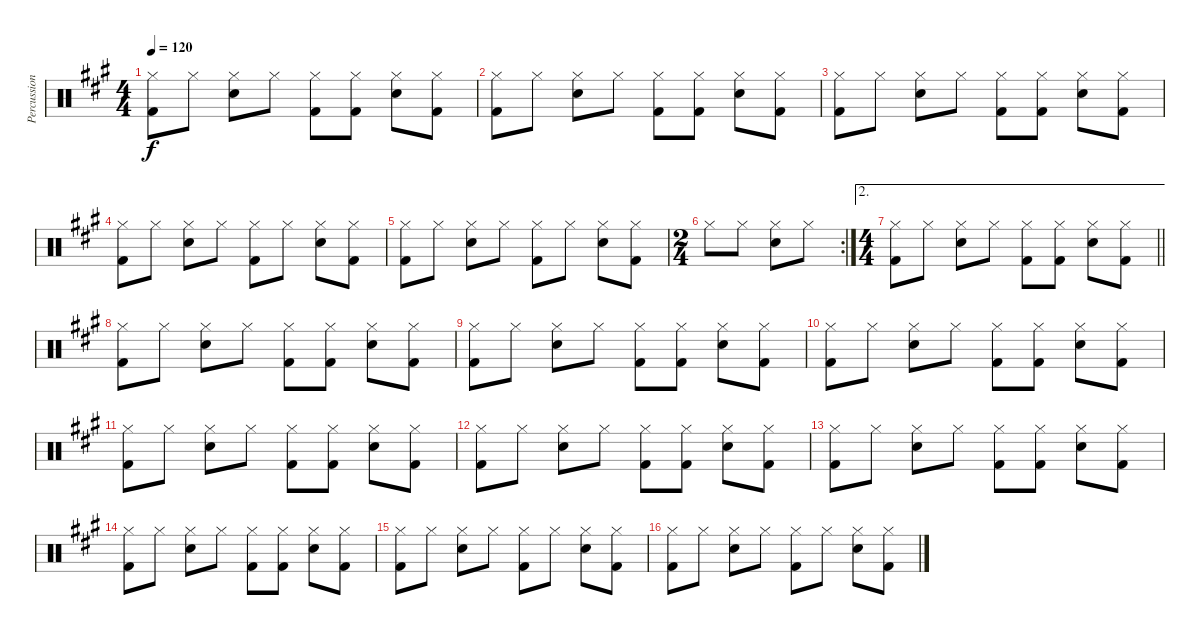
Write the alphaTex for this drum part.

\track ("Percussion" "Percussion") {instrument percussion}
\staff {score}
\articulation defaults
\ts (4 4)
\tempo 120
\clef neutral
\ks a
("Hi-Hat (closed)" "Kick (hit) 2").8{dy f} "Hi-Hat (closed)".8 ("Hi-Hat (closed)" "Snare (hit) 2").8 "Hi-Hat (closed)".8 ("Hi-Hat (closed)" "Kick (hit) 2").8 ("Hi-Hat (closed)" "Kick (hit) 2").8 ("Hi-Hat (closed)" "Snare (hit) 2").8 ("Hi-Hat (closed)" "Kick (hit) 2").8 |
("Hi-Hat (closed)" "Kick (hit) 2").8 "Hi-Hat (closed)".8 ("Hi-Hat (closed)" "Snare (hit) 2").8 "Hi-Hat (closed)".8 ("Hi-Hat (closed)" "Kick (hit) 2").8 ("Hi-Hat (closed)" "Kick (hit) 2").8 ("Hi-Hat (closed)" "Snare (hit) 2").8 ("Hi-Hat (closed)" "Kick (hit) 2").8 |
("Hi-Hat (closed)" "Kick (hit) 2").8 "Hi-Hat (closed)".8 ("Hi-Hat (closed)" "Snare (hit) 2").8 "Hi-Hat (closed)".8 ("Hi-Hat (closed)" "Kick (hit) 2").8 ("Hi-Hat (closed)" "Kick (hit) 2").8 ("Hi-Hat (closed)" "Snare (hit) 2").8 ("Hi-Hat (closed)" "Kick (hit) 2").8 |
("Hi-Hat (closed)" "Kick (hit) 2").8 "Hi-Hat (closed)".8 ("Hi-Hat (closed)" "Snare (hit) 2").8 "Hi-Hat (closed)".8 ("Hi-Hat (closed)" "Kick (hit) 2").8 "Hi-Hat (closed)".8 ("Hi-Hat (closed)" "Snare (hit) 2").8 ("Hi-Hat (closed)" "Kick (hit) 2").8 |
("Hi-Hat (closed)" "Kick (hit) 2").8 "Hi-Hat (closed)".8 ("Hi-Hat (closed)" "Snare (hit) 2").8 "Hi-Hat (closed)".8 ("Hi-Hat (closed)" "Kick (hit) 2").8 "Hi-Hat (closed)".8 ("Hi-Hat (closed)" "Snare (hit) 2").8 ("Hi-Hat (closed)" "Kick (hit) 2").8 |
\rc 2
\ts (2 4)
"Hi-Hat (closed)".8 "Hi-Hat (closed)".8 ("Hi-Hat (closed)" "Snare (hit) 2").8 "Hi-Hat (closed)".8 |
\ae 2
\ts (4 4)
\barLineRight lightlight
("Hi-Hat (closed)" "Kick (hit) 2").8 "Hi-Hat (closed)".8 ("Hi-Hat (closed)" "Snare (hit) 2").8 "Hi-Hat (closed)".8 ("Hi-Hat (closed)" "Kick (hit) 2").8 ("Hi-Hat (closed)" "Kick (hit) 2").8 ("Hi-Hat (closed)" "Snare (hit) 2").8 ("Hi-Hat (closed)" "Kick (hit) 2").8 |
("Hi-Hat (closed)" "Kick (hit) 2").8 "Hi-Hat (closed)".8 ("Hi-Hat (closed)" "Snare (hit) 2").8 "Hi-Hat (closed)".8 ("Hi-Hat (closed)" "Kick (hit) 2").8 ("Hi-Hat (closed)" "Kick (hit) 2").8 ("Hi-Hat (closed)" "Snare (hit) 2").8 ("Hi-Hat (closed)" "Kick (hit) 2").8 |
("Hi-Hat (closed)" "Kick (hit) 2").8 "Hi-Hat (closed)".8 ("Hi-Hat (closed)" "Snare (hit) 2").8 "Hi-Hat (closed)".8 ("Hi-Hat (closed)" "Kick (hit) 2").8 ("Hi-Hat (closed)" "Kick (hit) 2").8 ("Hi-Hat (closed)" "Snare (hit) 2").8 ("Hi-Hat (closed)" "Kick (hit) 2").8 |
("Hi-Hat (closed)" "Kick (hit) 2").8 "Hi-Hat (closed)".8 ("Hi-Hat (closed)" "Snare (hit) 2").8 "Hi-Hat (closed)".8 ("Hi-Hat (closed)" "Kick (hit) 2").8 ("Hi-Hat (closed)" "Kick (hit) 2").8 ("Hi-Hat (closed)" "Snare (hit) 2").8 ("Hi-Hat (closed)" "Kick (hit) 2").8 |
("Hi-Hat (closed)" "Kick (hit) 2").8 "Hi-Hat (closed)".8 ("Hi-Hat (closed)" "Snare (hit) 2").8 "Hi-Hat (closed)".8 ("Hi-Hat (closed)" "Kick (hit) 2").8 ("Hi-Hat (closed)" "Kick (hit) 2").8 ("Hi-Hat (closed)" "Snare (hit) 2").8 ("Hi-Hat (closed)" "Kick (hit) 2").8 |
("Hi-Hat (closed)" "Kick (hit) 2").8 "Hi-Hat (closed)".8 ("Hi-Hat (closed)" "Snare (hit) 2").8 "Hi-Hat (closed)".8 ("Hi-Hat (closed)" "Kick (hit) 2").8 ("Hi-Hat (closed)" "Kick (hit) 2").8 ("Hi-Hat (closed)" "Snare (hit) 2").8 ("Hi-Hat (closed)" "Kick (hit) 2").8 |
("Hi-Hat (closed)" "Kick (hit) 2").8 "Hi-Hat (closed)".8 ("Hi-Hat (closed)" "Snare (hit) 2").8 "Hi-Hat (closed)".8 ("Hi-Hat (closed)" "Kick (hit) 2").8 ("Hi-Hat (closed)" "Kick (hit) 2").8 ("Hi-Hat (closed)" "Snare (hit) 2").8 ("Hi-Hat (closed)" "Kick (hit) 2").8 |
("Hi-Hat (closed)" "Kick (hit) 2").8 "Hi-Hat (closed)".8 ("Hi-Hat (closed)" "Snare (hit) 2").8 "Hi-Hat (closed)".8 ("Hi-Hat (closed)" "Kick (hit) 2").8 ("Hi-Hat (closed)" "Kick (hit) 2").8 ("Hi-Hat (closed)" "Snare (hit) 2").8 ("Hi-Hat (closed)" "Kick (hit) 2").8 |
("Hi-Hat (closed)" "Kick (hit) 2").8 "Hi-Hat (closed)".8 ("Hi-Hat (closed)" "Snare (hit) 2").8 "Hi-Hat (closed)".8 ("Hi-Hat (closed)" "Kick (hit) 2").8 "Hi-Hat (closed)".8 ("Hi-Hat (closed)" "Snare (hit) 2").8 ("Hi-Hat (closed)" "Kick (hit) 2").8 |
("Hi-Hat (closed)" "Kick (hit) 2").8 "Hi-Hat (closed)".8 ("Hi-Hat (closed)" "Snare (hit) 2").8 "Hi-Hat (closed)".8 ("Hi-Hat (closed)" "Kick (hit) 2").8 "Hi-Hat (closed)".8 ("Hi-Hat (closed)" "Snare (hit) 2").8 ("Hi-Hat (closed)" "Kick (hit) 2").8
